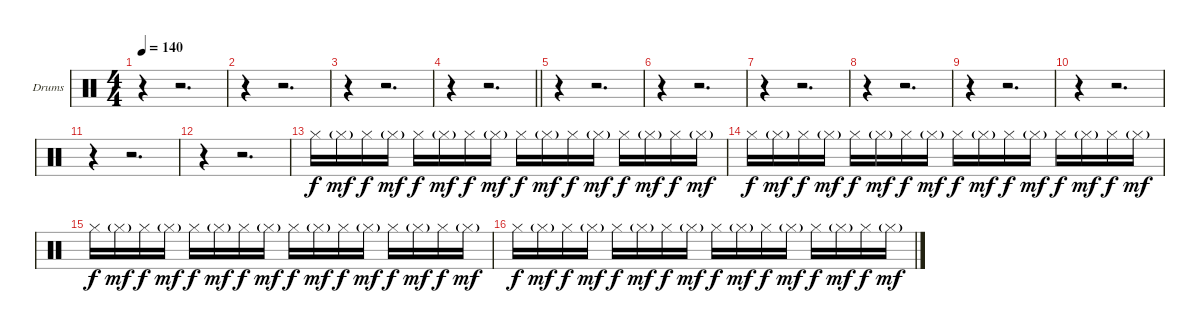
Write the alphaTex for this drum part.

\bracketExtendMode groupsimilarinstruments
\firstSystemTrackNameOrientation horizontal
\otherSystemsTrackNameOrientation horizontal
\track ("Drumkit" "Drums") {instrument percussion}
\staff {score}
\articulation defaults
\ts (4 4)
\tempo 140
\clef neutral
\ks c
r.4{dy fff} r.2{d} |
r.4 r.2{d} |
r.4 r.2{d} |
\barLineRight lightlight
r.4 r.2{d} |
r.4 r.2{d} |
r.4 r.2{d} |
r.4 r.2{d} |
r.4 r.2{d} |
r.4 r.2{d} |
r.4 r.2{d} |
r.4 r.2{d} |
r.4 r.2{d} |
"Hi-Hat (closed)".16{dy f} "Hi-Hat (closed)"{g}.16{dy mf} "Hi-Hat (closed)".16{dy f} "Hi-Hat (closed)"{g}.16{dy mf} "Hi-Hat (closed)".16{dy f} "Hi-Hat (closed)"{g}.16{dy mf} "Hi-Hat (closed)".16{dy f} "Hi-Hat (closed)"{g}.16{dy mf} "Hi-Hat (closed)".16{dy f} "Hi-Hat (closed)"{g}.16{dy mf} "Hi-Hat (closed)".16{dy f} "Hi-Hat (closed)"{g}.16{dy mf} "Hi-Hat (closed)".16{dy f} "Hi-Hat (closed)"{g}.16{dy mf} "Hi-Hat (closed)".16{dy f} "Hi-Hat (closed)"{g}.16{dy mf} |
"Hi-Hat (closed)".16{dy f} "Hi-Hat (closed)"{g}.16{dy mf} "Hi-Hat (closed)".16{dy f} "Hi-Hat (closed)"{g}.16{dy mf} "Hi-Hat (closed)".16{dy f} "Hi-Hat (closed)"{g}.16{dy mf} "Hi-Hat (closed)".16{dy f} "Hi-Hat (closed)"{g}.16{dy mf} "Hi-Hat (closed)".16{dy f} "Hi-Hat (closed)"{g}.16{dy mf} "Hi-Hat (closed)".16{dy f} "Hi-Hat (closed)"{g}.16{dy mf} "Hi-Hat (closed)".16{dy f} "Hi-Hat (closed)"{g}.16{dy mf} "Hi-Hat (closed)".16{dy f} "Hi-Hat (closed)"{g}.16{dy mf} |
"Hi-Hat (closed)".16{dy f} "Hi-Hat (closed)"{g}.16{dy mf} "Hi-Hat (closed)".16{dy f} "Hi-Hat (closed)"{g}.16{dy mf} "Hi-Hat (closed)".16{dy f} "Hi-Hat (closed)"{g}.16{dy mf} "Hi-Hat (closed)".16{dy f} "Hi-Hat (closed)"{g}.16{dy mf} "Hi-Hat (closed)".16{dy f} "Hi-Hat (closed)"{g}.16{dy mf} "Hi-Hat (closed)".16{dy f} "Hi-Hat (closed)"{g}.16{dy mf} "Hi-Hat (closed)".16{dy f} "Hi-Hat (closed)"{g}.16{dy mf} "Hi-Hat (closed)".16{dy f} "Hi-Hat (closed)"{g}.16{dy mf} |
"Hi-Hat (closed)".16{dy f} "Hi-Hat (closed)"{g}.16{dy mf} "Hi-Hat (closed)".16{dy f} "Hi-Hat (closed)"{g}.16{dy mf} "Hi-Hat (closed)".16{dy f} "Hi-Hat (closed)"{g}.16{dy mf} "Hi-Hat (closed)".16{dy f} "Hi-Hat (closed)"{g}.16{dy mf} "Hi-Hat (closed)".16{dy f} "Hi-Hat (closed)"{g}.16{dy mf} "Hi-Hat (closed)".16{dy f} "Hi-Hat (closed)"{g}.16{dy mf} "Hi-Hat (closed)".16{dy f} "Hi-Hat (closed)"{g}.16{dy mf} "Hi-Hat (closed)".16{dy f} "Hi-Hat (closed)"{g}.16{dy mf}
